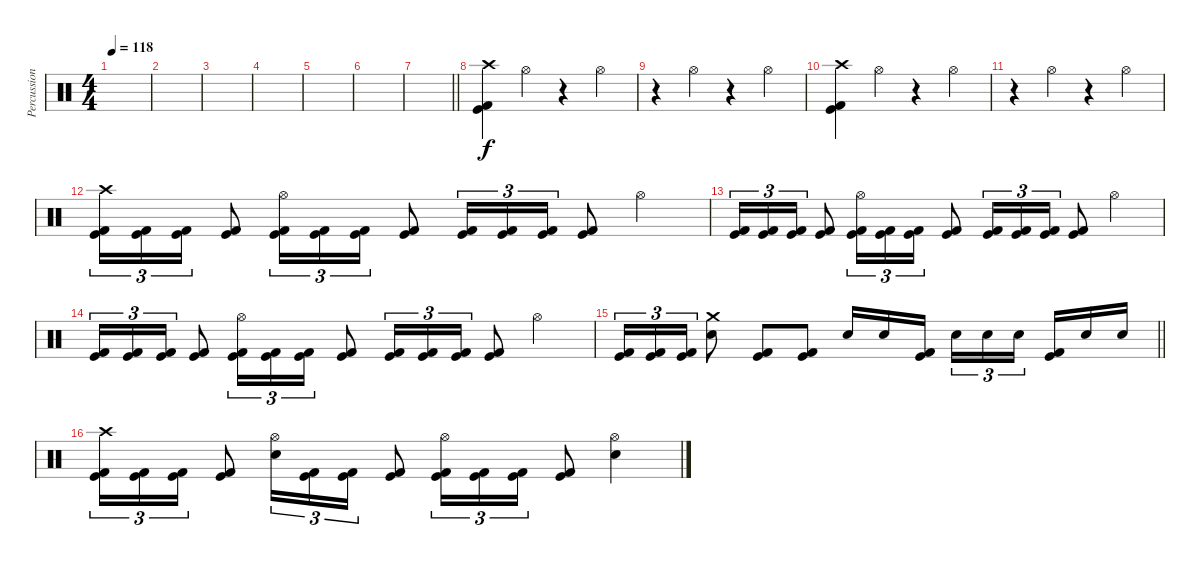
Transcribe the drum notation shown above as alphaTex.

\track ("Percussion" "Percussion") {instrument percussion}
\staff {score}
\articulation defaults
\ts (4 4)
\tempo 118
\clef neutral
\ks c
|
|
|
|
|
|
\barLineRight lightlight
|
\section ("" "")
("Crash high (hit)" "Kick (hit)" "Kick (hit) 2").4 "Hi-Hat (open)".4 r.4 "Hi-Hat (open)".4 |
r.4 "Hi-Hat (open)".4 r.4 "Hi-Hat (open)".4 |
("Crash high (hit)" "Kick (hit)" "Kick (hit) 2").4 "Hi-Hat (open)".4 r.4 "Hi-Hat (open)".4 |
r.4 "Hi-Hat (open)".4 r.4 "Hi-Hat (open)".4 |
("Crash high (hit)" "Kick (hit)" "Kick (hit) 2").16{tu (3 2)} ("Kick (hit)" "Kick (hit) 2").16{tu (3 2)} ("Kick (hit)" "Kick (hit) 2").16{tu (3 2)} ("Kick (hit)" "Kick (hit) 2").8 ("Hi-Hat (open)" "Kick (hit)" "Kick (hit) 2").16{tu (3 2)} ("Kick (hit)" "Kick (hit) 2").16{tu (3 2)} ("Kick (hit)" "Kick (hit) 2").16{tu (3 2)} ("Kick (hit)" "Kick (hit) 2").8 ("Kick (hit)" "Kick (hit) 2").16{tu (3 2)} ("Kick (hit)" "Kick (hit) 2").16{tu (3 2)} ("Kick (hit)" "Kick (hit) 2").16{tu (3 2)} ("Kick (hit)" "Kick (hit) 2").8 "Hi-Hat (open)".4 |
("Kick (hit)" "Kick (hit) 2").16{tu (3 2)} ("Kick (hit)" "Kick (hit) 2").16{tu (3 2)} ("Kick (hit)" "Kick (hit) 2").16{tu (3 2)} ("Kick (hit)" "Kick (hit) 2").8 ("Hi-Hat (open)" "Kick (hit)" "Kick (hit) 2").16{tu (3 2)} ("Kick (hit)" "Kick (hit) 2").16{tu (3 2)} ("Kick (hit)" "Kick (hit) 2").16{tu (3 2)} ("Kick (hit)" "Kick (hit) 2").8 ("Kick (hit)" "Kick (hit) 2").16{tu (3 2)} ("Kick (hit)" "Kick (hit) 2").16{tu (3 2)} ("Kick (hit)" "Kick (hit) 2").16{tu (3 2)} ("Kick (hit)" "Kick (hit) 2").8 "Hi-Hat (open)".4 |
("Kick (hit)" "Kick (hit) 2").16{tu (3 2)} ("Kick (hit)" "Kick (hit) 2").16{tu (3 2)} ("Kick (hit)" "Kick (hit) 2").16{tu (3 2)} ("Kick (hit)" "Kick (hit) 2").8 ("Hi-Hat (open)" "Kick (hit)" "Kick (hit) 2").16{tu (3 2)} ("Kick (hit)" "Kick (hit) 2").16{tu (3 2)} ("Kick (hit)" "Kick (hit) 2").16{tu (3 2)} ("Kick (hit)" "Kick (hit) 2").8 ("Kick (hit)" "Kick (hit) 2").16{tu (3 2)} ("Kick (hit)" "Kick (hit) 2").16{tu (3 2)} ("Kick (hit)" "Kick (hit) 2").16{tu (3 2)} ("Kick (hit)" "Kick (hit) 2").8 "Hi-Hat (open)".4 |
\barLineRight lightlight
("Kick (hit)" "Kick (hit) 2").16{tu (3 2)} ("Kick (hit)" "Kick (hit) 2").16{tu (3 2)} ("Kick (hit)" "Kick (hit) 2").16{tu (3 2)} ("Crash medium (hit)" "Electric Snare (hit)").8 ("Kick (hit)" "Kick (hit) 2").8 ("Kick (hit)" "Kick (hit) 2").8 "Electric Snare (hit)".16 "Electric Snare (hit)".16 ("Kick (hit)" "Kick (hit) 2").16{beam splitsecondary} "Electric Snare (hit)".16{tu (3 2)} "Electric Snare (hit)".16{tu (3 2)} "Electric Snare (hit)".16{tu (3 2) beam splitsecondary} ("Kick (hit)" "Kick (hit) 2").16 "Electric Snare (hit)".16 "Electric Snare (hit)".16 |
\section ("" "")
("Crash high (hit)" "Kick (hit)" "Kick (hit) 2").16{tu (3 2)} ("Kick (hit)" "Kick (hit) 2").16{tu (3 2)} ("Kick (hit)" "Kick (hit) 2").16{tu (3 2)} ("Kick (hit)" "Kick (hit) 2").8 ("Hi-Hat (open)" "Electric Snare (hit)").16{tu (3 2)} ("Kick (hit)" "Kick (hit) 2").16{tu (3 2)} ("Kick (hit)" "Kick (hit) 2").16{tu (3 2)} ("Kick (hit)" "Kick (hit) 2").8 ("Hi-Hat (open)" "Kick (hit)" "Kick (hit) 2").16{tu (3 2)} ("Kick (hit)" "Kick (hit) 2").16{tu (3 2)} ("Kick (hit)" "Kick (hit) 2").16{tu (3 2)} ("Kick (hit)" "Kick (hit) 2").8 ("Hi-Hat (open)" "Electric Snare (hit)").4
